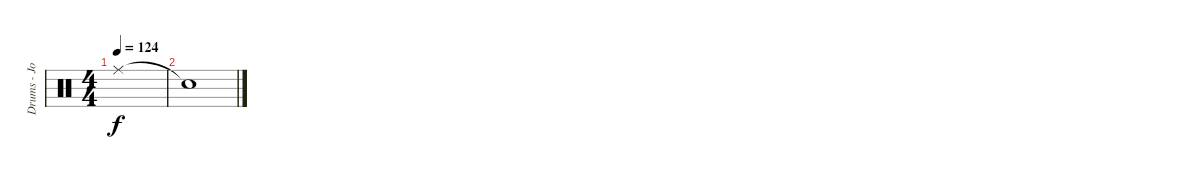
\track ("Drums - John Humphrey" "Drums - Jo") {instrument percussion}
\staff {score}
\articulation defaults
\ts (4 4)
\tempo 124
\clef neutral
\ks c "Ride (middle)".1{dy f}
|
"Snare (hit)"{t}.1
